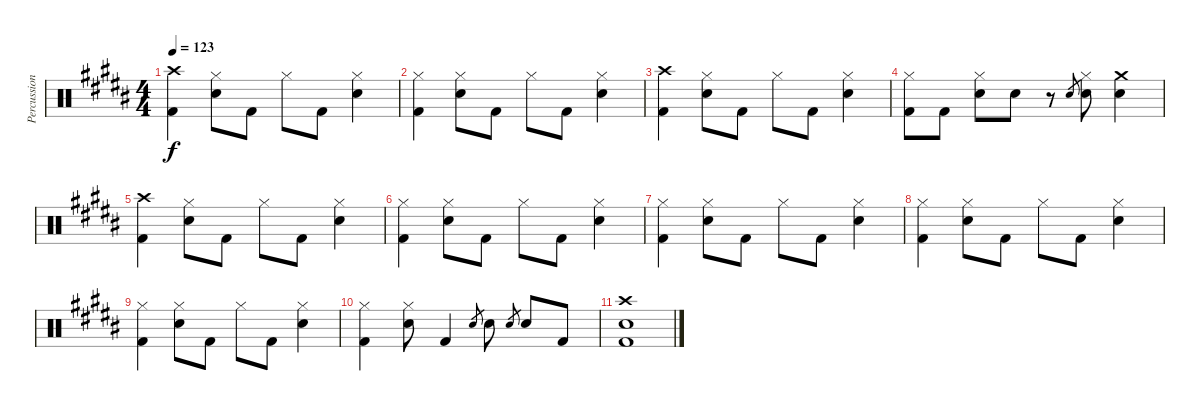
\track ("Percussion" "Percussion") {instrument percussion}
\staff {score}
\articulation defaults
\ts (4 4)
\tempo 123
\clef neutral
\ks b
("Crash high (hit)" "Kick (hit) 2").4{dy f} ("Hi-Hat (closed)" "Snare (hit) 2").8 "Kick (hit) 2".8 "Hi-Hat (closed)".8 "Kick (hit) 2".8 ("Hi-Hat (closed)" "Snare (hit) 2").4 |
("Hi-Hat (closed)" "Kick (hit) 2").4 ("Hi-Hat (closed)" "Snare (hit) 2").8 "Kick (hit) 2".8 "Hi-Hat (closed)".8 "Kick (hit) 2".8 ("Hi-Hat (closed)" "Snare (hit) 2").4 |
("Crash high (hit)" "Kick (hit) 2").4 ("Hi-Hat (closed)" "Snare (hit) 2").8 "Kick (hit) 2".8 "Hi-Hat (closed)".8 "Kick (hit) 2".8 ("Hi-Hat (closed)" "Snare (hit) 2").4 |
("Hi-Hat (closed)" "Kick (hit) 2").8 "Kick (hit) 2".8 ("Hi-Hat (closed)" "Snare (hit) 2").8 "Snare (hit) 2".8 r.8 "Snare (hit) 2".8{gr} ("Hi-Hat (closed)" "Snare (hit) 2").8 ("Crash medium (hit)" "Snare (hit) 2").4 |
("Crash high (hit)" "Kick (hit) 2").4 ("Hi-Hat (closed)" "Snare (hit) 2").8 "Kick (hit) 2".8 "Hi-Hat (closed)".8 "Kick (hit) 2".8 ("Hi-Hat (closed)" "Snare (hit) 2").4 |
("Hi-Hat (closed)" "Kick (hit) 2").4 ("Hi-Hat (closed)" "Snare (hit) 2").8 "Kick (hit) 2".8 "Hi-Hat (closed)".8 "Kick (hit) 2".8 ("Hi-Hat (closed)" "Snare (hit) 2").4 |
("Hi-Hat (closed)" "Kick (hit) 2").4 ("Hi-Hat (closed)" "Snare (hit) 2").8 "Kick (hit) 2".8 "Hi-Hat (closed)".8 "Kick (hit) 2".8 ("Hi-Hat (closed)" "Snare (hit) 2").4 |
("Hi-Hat (closed)" "Kick (hit) 2").4 ("Hi-Hat (closed)" "Snare (hit) 2").8 "Kick (hit) 2".8 "Hi-Hat (closed)".8 "Kick (hit) 2".8 ("Hi-Hat (closed)" "Snare (hit) 2").4 |
("Hi-Hat (closed)" "Kick (hit) 2").4 ("Hi-Hat (closed)" "Snare (hit) 2").8 "Kick (hit) 2".8 "Hi-Hat (closed)".8 "Kick (hit) 2".8 ("Hi-Hat (closed)" "Snare (hit) 2").4 |
("Hi-Hat (closed)" "Kick (hit) 2").4 ("Hi-Hat (closed)" "Snare (hit) 2").8 "Kick (hit) 2".4 "Snare (hit) 2".8{gr} "Snare (hit) 2".8 "Snare (hit) 2".8{gr} "Snare (hit) 2".8 "Kick (hit) 2".8 |
("Crash high (hit)" "Snare (hit) 2" "Kick (hit) 2").1
